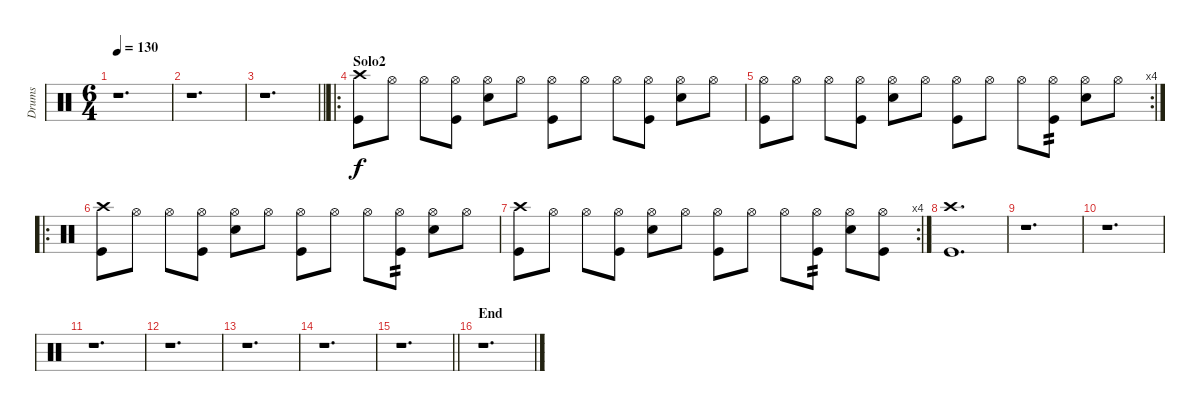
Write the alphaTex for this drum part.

\track ("Drums" "Drums") {instrument percussion}
\staff {score}
\articulation defaults
\ts (6 4)
\tempo 130
\clef neutral
\ks c
r.1{d dy f} |
r.1{d} |
\barLineRight lightlight
r.1{d} |
\ro
\section ("" "Solo2")
("Crash high (hit)" "Kick (hit)").8 "Hi-Hat (open)".8 "Hi-Hat (open)".8 ("Hi-Hat (open)" "Kick (hit)").8 ("Hi-Hat (open)" "Electric Snare (hit)").8 "Hi-Hat (open)".8 ("Hi-Hat (open)" "Kick (hit)").8 "Hi-Hat (open)".8 "Hi-Hat (open)".8 ("Hi-Hat (open)" "Kick (hit)").8 ("Hi-Hat (open)" "Electric Snare (hit)").8 "Hi-Hat (open)".8 |
\rc 4
("Hi-Hat (open)" "Kick (hit)").8 "Hi-Hat (open)".8 "Hi-Hat (open)".8 ("Hi-Hat (open)" "Kick (hit)").8 ("Hi-Hat (open)" "Electric Snare (hit)").8 "Hi-Hat (open)".8 ("Hi-Hat (open)" "Kick (hit)").8 "Hi-Hat (open)".8 "Hi-Hat (open)".8 ("Hi-Hat (open)" "Kick (hit)").8{tp 2} ("Hi-Hat (open)" "Electric Snare (hit)").8 "Hi-Hat (open)".8 |
\ro
("Crash high (hit)" "Kick (hit)").8 "Hi-Hat (open)".8 "Hi-Hat (open)".8 ("Hi-Hat (open)" "Kick (hit)").8 ("Hi-Hat (open)" "Electric Snare (hit)").8 "Hi-Hat (open)".8 ("Hi-Hat (open)" "Kick (hit)").8 "Hi-Hat (open)".8 "Hi-Hat (open)".8 ("Hi-Hat (open)" "Kick (hit)").8{tp 2} ("Hi-Hat (open)" "Electric Snare (hit)").8 "Hi-Hat (open)".8 |
\rc 4
("Crash high (hit)" "Kick (hit)").8 "Hi-Hat (open)".8 "Hi-Hat (open)".8 ("Hi-Hat (open)" "Kick (hit)").8 ("Hi-Hat (open)" "Electric Snare (hit)").8 "Hi-Hat (open)".8 ("Hi-Hat (open)" "Kick (hit)").8 "Hi-Hat (open)".8 "Hi-Hat (open)".8 ("Hi-Hat (open)" "Kick (hit)").8{tp 2} ("Hi-Hat (open)" "Electric Snare (hit)").8 ("Hi-Hat (open)" "Kick (hit)").8 |
("Crash high (hit)" "Kick (hit)").1{d} |
r.1{d} |
r.1{d} |
r.1{d} |
r.1{d} |
r.1{d} |
r.1{d} |
\barLineRight lightlight
r.1{d} |
\section ("" "End")
r.1{d}
